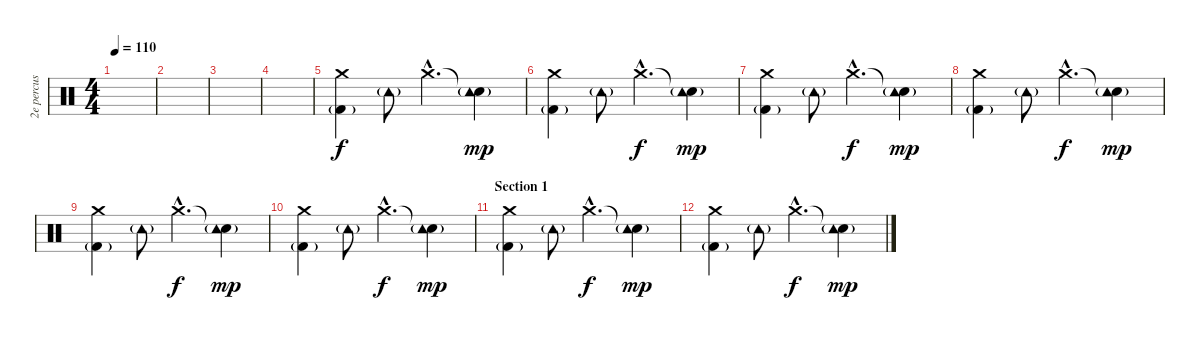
\track ("2e percus" "2e percus") {instrument percussion}
\staff {score}
\articulation defaults
\ts (4 4)
\tempo 110
\clef neutral
\ks c
|
|
|
|
("Crash medium (hit)" "Kick (hit) 2"{g}).4{volume 6} "Tambourine (hit)"{g}.8 "Crash medium (hit)"{hac}.4{d dy f} ("Snare (hit)"{t} "Tambourine (hit)"{g}).4{dy mp} |
("Crash medium (hit)" "Kick (hit) 2"{g}).4{volume 7} "Tambourine (hit)"{g}.8 "Crash medium (hit)"{hac}.4{d dy f} ("Snare (hit)"{t} "Tambourine (hit)"{g}).4{dy mp} |
("Crash medium (hit)" "Kick (hit) 2"{g}).4{volume 8} "Tambourine (hit)"{g}.8 "Crash medium (hit)"{hac}.4{d dy f} ("Snare (hit)"{t} "Tambourine (hit)"{g}).4{dy mp} |
("Crash medium (hit)" "Kick (hit) 2"{g}).4 "Tambourine (hit)"{g}.8 "Crash medium (hit)"{hac}.4{d dy f} ("Snare (hit)"{t} "Tambourine (hit)"{g}).4{dy mp} |
("Crash medium (hit)" "Kick (hit) 2"{g}).4 "Tambourine (hit)"{g}.8 "Crash medium (hit)"{hac}.4{d dy f} ("Snare (hit)"{t} "Tambourine (hit)"{g}).4{dy mp} |
("Crash medium (hit)" "Kick (hit) 2"{g}).4 "Tambourine (hit)"{g}.8 "Crash medium (hit)"{hac}.4{d dy f} ("Snare (hit)"{t} "Tambourine (hit)"{g}).4{dy mp} |
\section ("" "Section 1")
("Crash medium (hit)" "Kick (hit) 2"{g}).4{volume 7} "Tambourine (hit)"{g}.8 "Crash medium (hit)"{hac}.4{d dy f volume 7} ("Snare (hit)"{t} "Tambourine (hit)"{g}).4{dy mp} |
("Crash medium (hit)" "Kick (hit) 2"{g}).4 "Tambourine (hit)"{g}.8 "Crash medium (hit)"{hac}.4{d dy f} ("Snare (hit)"{t} "Tambourine (hit)"{g}).4{dy mp}
